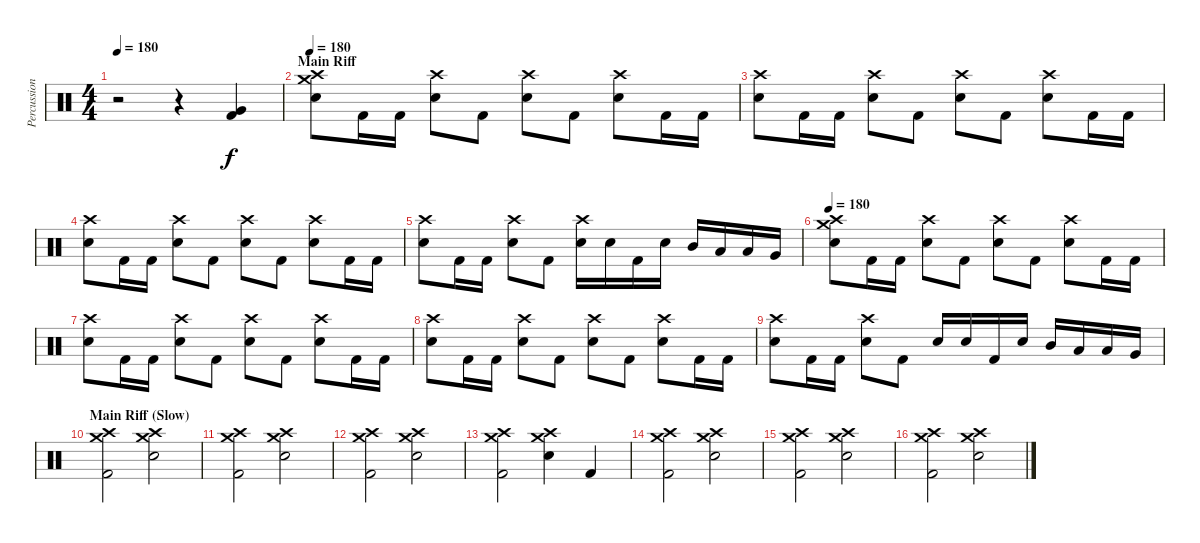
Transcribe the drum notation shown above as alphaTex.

\track ("Percussion" "Percussion") {instrument percussion}
\staff {score}
\articulation defaults
\ts (4 4)
\tempo 180
\clef neutral
\ks c
r.2{dy f} r.4 ("Very Low Tom (hit)" "Kick (hit) 2").4 |
\section ("" "Main Riff")
\tempo 180
("Crash high (hit)" "Crash medium (hit)" "Electric Snare (hit)").8 "Kick (hit) 2".16 "Kick (hit) 2".16 ("Crash high (hit)" "Electric Snare (hit)").8 "Kick (hit) 2".8 ("Crash high (hit)" "Electric Snare (hit)").8 "Kick (hit) 2".8 ("Crash high (hit)" "Electric Snare (hit)").8 "Kick (hit) 2".16 "Kick (hit) 2".16 |
("Crash high (hit)" "Electric Snare (hit)").8 "Kick (hit) 2".16 "Kick (hit) 2".16 ("Crash high (hit)" "Electric Snare (hit)").8 "Kick (hit) 2".8 ("Crash high (hit)" "Electric Snare (hit)").8 "Kick (hit) 2".8 ("Crash high (hit)" "Electric Snare (hit)").8 "Kick (hit) 2".16 "Kick (hit) 2".16 |
("Crash high (hit)" "Electric Snare (hit)").8 "Kick (hit) 2".16 "Kick (hit) 2".16 ("Crash high (hit)" "Electric Snare (hit)").8 "Kick (hit) 2".8 ("Crash high (hit)" "Electric Snare (hit)").8 "Kick (hit) 2".8 ("Crash high (hit)" "Electric Snare (hit)").8 "Kick (hit) 2".16 "Kick (hit) 2".16 |
("Crash high (hit)" "Electric Snare (hit)").8 "Kick (hit) 2".16 "Kick (hit) 2".16 ("Crash high (hit)" "Electric Snare (hit)").8 "Kick (hit) 2".8 ("Crash high (hit)" "Electric Snare (hit)").16 "Electric Snare (hit)".16 "Kick (hit) 2".16 "Electric Snare (hit)".16 "Mid Tom (hit)".16 "Low Floor Tom (hit)".16 "Low Tom (hit)".16 "Very Low Tom (hit)".16 |
\tempo 180
("Crash high (hit)" "Crash medium (hit)" "Electric Snare (hit)").8 "Kick (hit) 2".16 "Kick (hit) 2".16 ("Crash high (hit)" "Electric Snare (hit)").8 "Kick (hit) 2".8 ("Crash high (hit)" "Electric Snare (hit)").8 "Kick (hit) 2".8 ("Crash high (hit)" "Electric Snare (hit)").8 "Kick (hit) 2".16 "Kick (hit) 2".16 |
("Crash high (hit)" "Electric Snare (hit)").8 "Kick (hit) 2".16 "Kick (hit) 2".16 ("Crash high (hit)" "Electric Snare (hit)").8 "Kick (hit) 2".8 ("Crash high (hit)" "Electric Snare (hit)").8 "Kick (hit) 2".8 ("Crash high (hit)" "Electric Snare (hit)").8 "Kick (hit) 2".16 "Kick (hit) 2".16 |
("Crash high (hit)" "Electric Snare (hit)").8 "Kick (hit) 2".16 "Kick (hit) 2".16 ("Crash high (hit)" "Electric Snare (hit)").8 "Kick (hit) 2".8 ("Crash high (hit)" "Electric Snare (hit)").8 "Kick (hit) 2".8 ("Crash high (hit)" "Electric Snare (hit)").8 "Kick (hit) 2".16 "Kick (hit) 2".16 |
("Crash high (hit)" "Electric Snare (hit)").8 "Kick (hit) 2".16 "Kick (hit) 2".16 ("Crash high (hit)" "Electric Snare (hit)").8 "Kick (hit) 2".8 "Electric Snare (hit)".16 "Electric Snare (hit)".16 "Kick (hit) 2".16 "Electric Snare (hit)".16 "Mid Tom (hit)".16 "Low Floor Tom (hit)".16 "Low Tom (hit)".16 "Very Low Tom (hit)".16 |
\section ("" "Main Riff (Slow)")
("Crash high (hit)" "Crash medium (hit)" "Kick (hit) 2").2 ("Crash high (hit)" "Crash medium (hit)" "Electric Snare (hit)").2 |
("Crash high (hit)" "Crash medium (hit)" "Kick (hit) 2").2 ("Crash high (hit)" "Crash medium (hit)" "Electric Snare (hit)").2 |
("Crash high (hit)" "Crash medium (hit)" "Kick (hit) 2").2 ("Crash high (hit)" "Crash medium (hit)" "Electric Snare (hit)").2 |
("Crash high (hit)" "Crash medium (hit)" "Kick (hit) 2").2 ("Crash high (hit)" "Crash medium (hit)" "Electric Snare (hit)").4 "Kick (hit) 2".4 |
("Crash high (hit)" "Crash medium (hit)" "Kick (hit) 2").2 ("Crash high (hit)" "Crash medium (hit)" "Electric Snare (hit)").2 |
("Crash high (hit)" "Crash medium (hit)" "Kick (hit) 2").2 ("Crash high (hit)" "Crash medium (hit)" "Electric Snare (hit)").2 |
("Crash high (hit)" "Crash medium (hit)" "Kick (hit) 2").2 ("Crash high (hit)" "Crash medium (hit)" "Electric Snare (hit)").2
